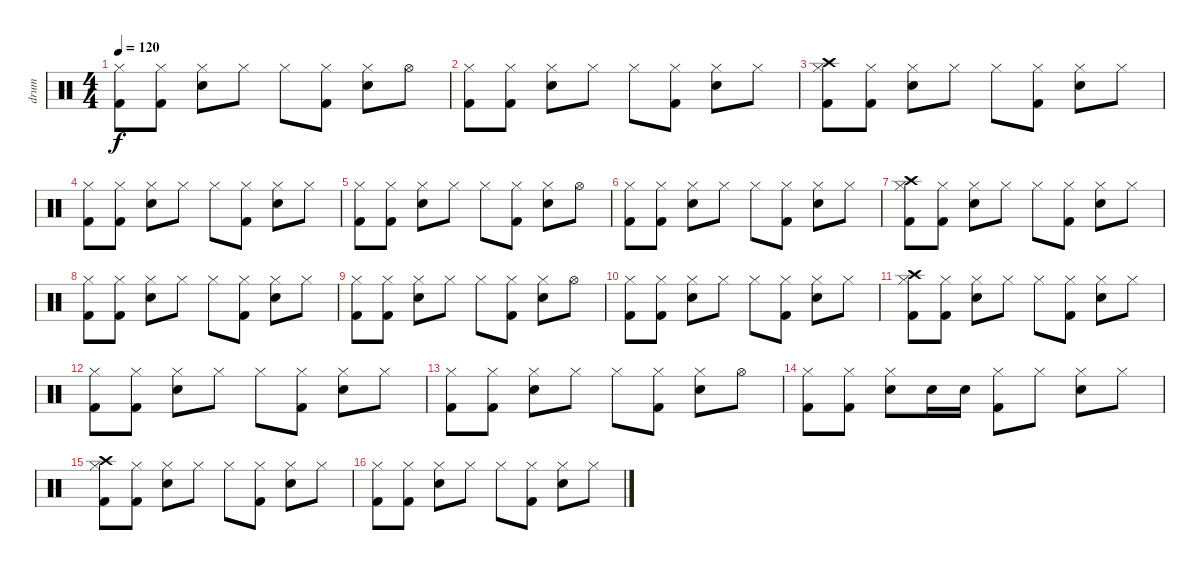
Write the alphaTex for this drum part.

\track ("drum" "drum") {instrument percussion}
\staff {score}
\articulation defaults
\ts (4 4)
\tempo 120
\clef neutral
\ks c
("Hi-Hat (closed)" "Kick (hit) 2").8{dy f} ("Hi-Hat (closed)" "Kick (hit) 2").8 ("Hi-Hat (closed)" "Electric Snare (hit)").8 "Hi-Hat (closed)".8 "Hi-Hat (closed)".8 ("Hi-Hat (closed)" "Kick (hit) 2").8 ("Hi-Hat (closed)" "Electric Snare (hit)").8 "Hi-Hat (open)".8 |
("Hi-Hat (closed)" "Kick (hit) 2").8 ("Hi-Hat (closed)" "Kick (hit) 2").8 ("Hi-Hat (closed)" "Electric Snare (hit)").8 "Hi-Hat (closed)".8 "Hi-Hat (closed)".8 ("Hi-Hat (closed)" "Kick (hit) 2").8 ("Hi-Hat (closed)" "Electric Snare (hit)").8 "Hi-Hat (closed)".8 |
("Crash high (hit)" "Hi-Hat (closed)" "Kick (hit) 2").8 ("Hi-Hat (closed)" "Kick (hit) 2").8 ("Hi-Hat (closed)" "Electric Snare (hit)").8 "Hi-Hat (closed)".8 "Hi-Hat (closed)".8 ("Hi-Hat (closed)" "Kick (hit) 2").8 ("Hi-Hat (closed)" "Electric Snare (hit)").8 "Hi-Hat (closed)".8 |
("Hi-Hat (closed)" "Kick (hit) 2").8 ("Hi-Hat (closed)" "Kick (hit) 2").8 ("Hi-Hat (closed)" "Electric Snare (hit)").8 "Hi-Hat (closed)".8 "Hi-Hat (closed)".8 ("Hi-Hat (closed)" "Kick (hit) 2").8 ("Hi-Hat (closed)" "Electric Snare (hit)").8 "Hi-Hat (closed)".8 |
("Hi-Hat (closed)" "Kick (hit) 2").8 ("Hi-Hat (closed)" "Kick (hit) 2").8 ("Hi-Hat (closed)" "Electric Snare (hit)").8 "Hi-Hat (closed)".8 "Hi-Hat (closed)".8 ("Hi-Hat (closed)" "Kick (hit) 2").8 ("Hi-Hat (closed)" "Electric Snare (hit)").8 "Hi-Hat (open)".8 |
("Hi-Hat (closed)" "Kick (hit) 2").8 ("Hi-Hat (closed)" "Kick (hit) 2").8 ("Hi-Hat (closed)" "Electric Snare (hit)").8 "Hi-Hat (closed)".8 "Hi-Hat (closed)".8 ("Hi-Hat (closed)" "Kick (hit) 2").8 ("Hi-Hat (closed)" "Electric Snare (hit)").8 "Hi-Hat (closed)".8 |
("Crash high (hit)" "Hi-Hat (closed)" "Kick (hit) 2").8 ("Hi-Hat (closed)" "Kick (hit) 2").8 ("Hi-Hat (closed)" "Electric Snare (hit)").8 "Hi-Hat (closed)".8 "Hi-Hat (closed)".8 ("Hi-Hat (closed)" "Kick (hit) 2").8 ("Hi-Hat (closed)" "Electric Snare (hit)").8 "Hi-Hat (closed)".8 |
("Hi-Hat (closed)" "Kick (hit) 2").8 ("Hi-Hat (closed)" "Kick (hit) 2").8 ("Hi-Hat (closed)" "Electric Snare (hit)").8 "Hi-Hat (closed)".8 "Hi-Hat (closed)".8 ("Hi-Hat (closed)" "Kick (hit) 2").8 ("Hi-Hat (closed)" "Electric Snare (hit)").8 "Hi-Hat (closed)".8 |
("Hi-Hat (closed)" "Kick (hit) 2").8 ("Hi-Hat (closed)" "Kick (hit) 2").8 ("Hi-Hat (closed)" "Electric Snare (hit)").8 "Hi-Hat (closed)".8 "Hi-Hat (closed)".8 ("Hi-Hat (closed)" "Kick (hit) 2").8 ("Hi-Hat (closed)" "Electric Snare (hit)").8 "Hi-Hat (open)".8 |
("Hi-Hat (closed)" "Kick (hit) 2").8 ("Hi-Hat (closed)" "Kick (hit) 2").8 ("Hi-Hat (closed)" "Electric Snare (hit)").8 "Hi-Hat (closed)".8 "Hi-Hat (closed)".8 ("Hi-Hat (closed)" "Kick (hit) 2").8 ("Hi-Hat (closed)" "Electric Snare (hit)").8 "Hi-Hat (closed)".8 |
("Crash high (hit)" "Hi-Hat (closed)" "Kick (hit) 2").8 ("Hi-Hat (closed)" "Kick (hit) 2").8 ("Hi-Hat (closed)" "Electric Snare (hit)").8 "Hi-Hat (closed)".8 "Hi-Hat (closed)".8 ("Hi-Hat (closed)" "Kick (hit) 2").8 ("Hi-Hat (closed)" "Electric Snare (hit)").8 "Hi-Hat (closed)".8 |
("Hi-Hat (closed)" "Kick (hit) 2").8 ("Hi-Hat (closed)" "Kick (hit) 2").8 ("Hi-Hat (closed)" "Electric Snare (hit)").8 "Hi-Hat (closed)".8 "Hi-Hat (closed)".8 ("Hi-Hat (closed)" "Kick (hit) 2").8 ("Hi-Hat (closed)" "Electric Snare (hit)").8 "Hi-Hat (closed)".8 |
("Hi-Hat (closed)" "Kick (hit) 2").8 ("Hi-Hat (closed)" "Kick (hit) 2").8 ("Hi-Hat (closed)" "Electric Snare (hit)").8 "Hi-Hat (closed)".8 "Hi-Hat (closed)".8 ("Hi-Hat (closed)" "Kick (hit) 2").8 ("Hi-Hat (closed)" "Electric Snare (hit)").8 "Hi-Hat (open)".8 |
("Hi-Hat (closed)" "Kick (hit) 2").8 ("Hi-Hat (closed)" "Kick (hit) 2").8 ("Hi-Hat (closed)" "Electric Snare (hit)").8 "Electric Snare (hit)".16 "Electric Snare (hit)".16 ("Hi-Hat (closed)" "Kick (hit) 2").8 "Hi-Hat (closed)".8 ("Hi-Hat (closed)" "Electric Snare (hit)").8 "Hi-Hat (closed)".8 |
("Crash high (hit)" "Hi-Hat (closed)" "Kick (hit) 2").8 ("Hi-Hat (closed)" "Kick (hit) 2").8 ("Hi-Hat (closed)" "Electric Snare (hit)").8 "Hi-Hat (closed)".8 "Hi-Hat (closed)".8 ("Hi-Hat (closed)" "Kick (hit) 2").8 ("Hi-Hat (closed)" "Electric Snare (hit)").8 "Hi-Hat (closed)".8 |
("Hi-Hat (closed)" "Kick (hit) 2").8 ("Hi-Hat (closed)" "Kick (hit) 2").8 ("Hi-Hat (closed)" "Electric Snare (hit)").8 "Hi-Hat (closed)".8 "Hi-Hat (closed)".8 ("Hi-Hat (closed)" "Kick (hit) 2").8 ("Hi-Hat (closed)" "Electric Snare (hit)").8 "Hi-Hat (closed)".8
